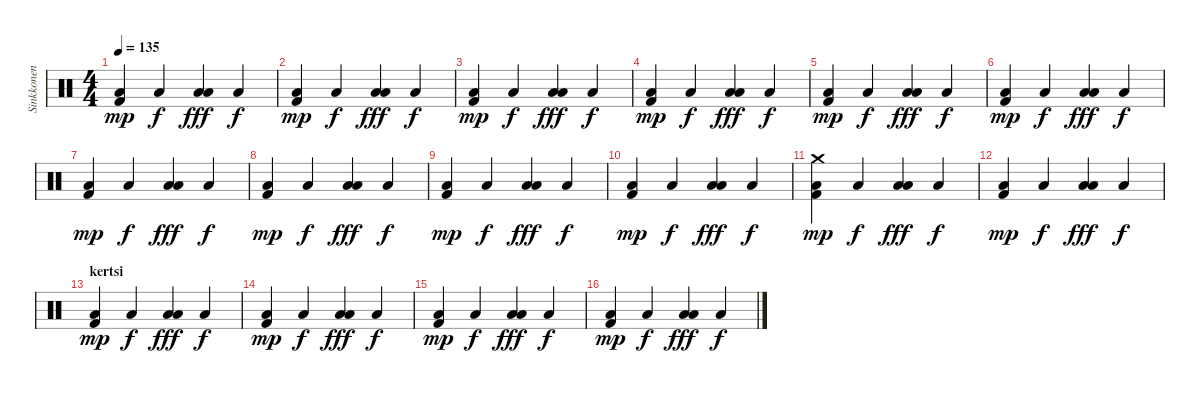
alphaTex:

\track ("Sinkkonen" "Sinkkonen") {instrument percussion}
\staff {score}
\articulation defaults
\ts (4 4)
\tempo 135
\clef neutral
\ks c
("Kick (hit) 2" "Low Floor Tom (hit)").4{dy mp} "Low Floor Tom (hit)".4{dy f} ("Low Floor Tom (hit)" "Low Floor Tom (hit)").4{dy fff} "Low Floor Tom (hit)".4{dy f} |
("Kick (hit) 2" "Low Floor Tom (hit)").4{dy mp} "Low Floor Tom (hit)".4{dy f} ("Low Floor Tom (hit)" "Low Floor Tom (hit)").4{dy fff} "Low Floor Tom (hit)".4{dy f} |
("Kick (hit) 2" "Low Floor Tom (hit)").4{dy mp} "Low Floor Tom (hit)".4{dy f} ("Low Floor Tom (hit)" "Low Floor Tom (hit)").4{dy fff} "Low Floor Tom (hit)".4{dy f} |
("Kick (hit) 2" "Low Floor Tom (hit)").4{dy mp} "Low Floor Tom (hit)".4{dy f} ("Low Floor Tom (hit)" "Low Floor Tom (hit)").4{dy fff} "Low Floor Tom (hit)".4{dy f} |
("Kick (hit) 2" "Low Floor Tom (hit)").4{dy mp} "Low Floor Tom (hit)".4{dy f} ("Low Floor Tom (hit)" "Low Floor Tom (hit)").4{dy fff} "Low Floor Tom (hit)".4{dy f} |
("Kick (hit) 2" "Low Floor Tom (hit)").4{dy mp} "Low Floor Tom (hit)".4{dy f} ("Low Floor Tom (hit)" "Low Floor Tom (hit)").4{dy fff} "Low Floor Tom (hit)".4{dy f} |
("Kick (hit) 2" "Low Floor Tom (hit)").4{dy mp} "Low Floor Tom (hit)".4{dy f} ("Low Floor Tom (hit)" "Low Floor Tom (hit)").4{dy fff} "Low Floor Tom (hit)".4{dy f} |
("Kick (hit) 2" "Low Floor Tom (hit)").4{dy mp} "Low Floor Tom (hit)".4{dy f} ("Low Floor Tom (hit)" "Low Floor Tom (hit)").4{dy fff} "Low Floor Tom (hit)".4{dy f} |
("Kick (hit) 2" "Low Floor Tom (hit)").4{dy mp} "Low Floor Tom (hit)".4{dy f} ("Low Floor Tom (hit)" "Low Floor Tom (hit)").4{dy fff} "Low Floor Tom (hit)".4{dy f} |
("Kick (hit) 2" "Low Floor Tom (hit)").4{dy mp} "Low Floor Tom (hit)".4{dy f} ("Low Floor Tom (hit)" "Low Floor Tom (hit)").4{dy fff} "Low Floor Tom (hit)".4{dy f} |
("Kick (hit) 2" "Crash medium (hit)" "Low Floor Tom (hit)").4{dy mp} "Low Floor Tom (hit)".4{dy f} ("Low Floor Tom (hit)" "Low Floor Tom (hit)").4{dy fff} "Low Floor Tom (hit)".4{dy f} |
("Kick (hit) 2" "Low Floor Tom (hit)").4{dy mp} "Low Floor Tom (hit)".4{dy f} ("Low Floor Tom (hit)" "Low Floor Tom (hit)").4{dy fff} "Low Floor Tom (hit)".4{dy f} |
\section ("" "kertsi")
("Kick (hit) 2" "Low Floor Tom (hit)").4{dy mp} "Low Floor Tom (hit)".4{dy f} ("Low Floor Tom (hit)" "Low Floor Tom (hit)").4{dy fff} "Low Floor Tom (hit)".4{dy f} |
("Kick (hit) 2" "Low Floor Tom (hit)").4{dy mp} "Low Floor Tom (hit)".4{dy f} ("Low Floor Tom (hit)" "Low Floor Tom (hit)").4{dy fff} "Low Floor Tom (hit)".4{dy f} |
("Kick (hit) 2" "Low Floor Tom (hit)").4{dy mp} "Low Floor Tom (hit)".4{dy f} ("Low Floor Tom (hit)" "Low Floor Tom (hit)").4{dy fff} "Low Floor Tom (hit)".4{dy f} |
("Kick (hit) 2" "Low Floor Tom (hit)").4{dy mp} "Low Floor Tom (hit)".4{dy f} ("Low Floor Tom (hit)" "Low Floor Tom (hit)").4{dy fff} "Low Floor Tom (hit)".4{dy f}
